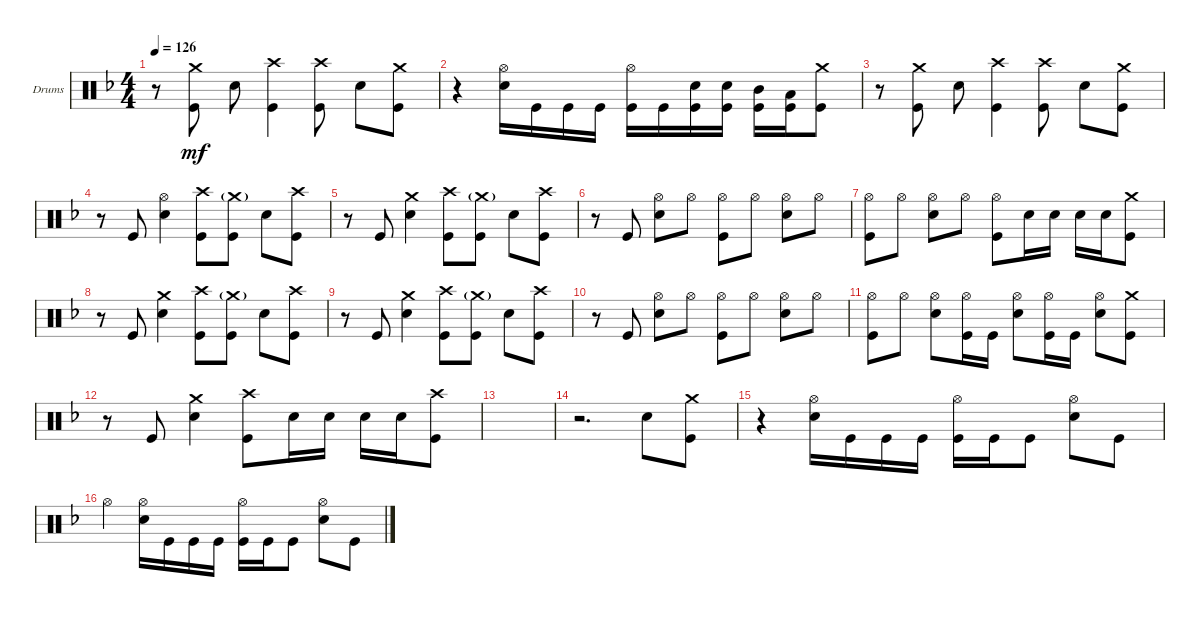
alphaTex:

\defaultSystemsLayout 4
\bracketExtendMode groupsimilarinstruments
\firstSystemTrackNameOrientation horizontal
\otherSystemsTrackNameOrientation horizontal
\track ("Drumkit" "Drums") {instrument percussion}
\staff {score}
\articulation defaults
\ts (4 4)
\tempo 126
\clef neutral
\ks f
r.8{dy mf} ("Crash medium (hit)" "Kick (hit)").8 "Snare (hit) 2".8 ("Kick (hit)" "Crash high (hit)").4 ("Kick (hit)" "Crash high (hit)").8 "Snare (hit) 2".8 ("Crash medium (hit)" "Kick (hit)").8 |
r.4 ("Hi-Hat (open)" "Snare (hit) 2").16 "Kick (hit)".16 "Kick (hit)".16 "Kick (hit)".16 ("Hi-Hat (open)" "Kick (hit)").16 "Kick (hit)".16 ("Kick (hit)" "Snare (hit) 2").16 ("Kick (hit)" "Snare (hit) 2").16 ("Kick (hit)" "Mid Tom (hit)").16 ("Kick (hit)" "Low Tom (hit)").16 ("Kick (hit)" "Crash medium (hit)").8 |
r.8 ("Crash medium (hit)" "Kick (hit)").8 "Snare (hit) 2".8 ("Kick (hit)" "Crash high (hit)").4 ("Kick (hit)" "Crash high (hit)").8 "Snare (hit) 2".8 ("Crash medium (hit)" "Kick (hit)").8 |
r.8 "Kick (hit)".8 ("Snare (hit) 2" "Hi-Hat (open)").4 ("Crash high (hit)" "Kick (hit)").8 ("Kick (hit)" "Crash medium (hit)"{g}).8 "Snare (hit) 2".8 ("Crash high (hit)" "Kick (hit)").8 |
r.8 "Kick (hit)".8 ("Crash medium (hit)" "Snare (hit) 2").4 ("Crash high (hit)" "Kick (hit)").8 ("Kick (hit)" "Crash medium (hit)"{g}).8 "Snare (hit) 2".8 ("Crash high (hit)" "Kick (hit)").8 |
r.8 "Kick (hit)".8 ("Snare (hit) 2" "Hi-Hat (open)").8 "Hi-Hat (open)".8 ("Hi-Hat (open)" "Kick (hit)").8 "Hi-Hat (open)".8 ("Snare (hit) 2" "Hi-Hat (open)").8 "Hi-Hat (open)".8 |
("Hi-Hat (open)" "Kick (hit)").8 "Hi-Hat (open)".8 ("Snare (hit) 2" "Hi-Hat (open)").8 "Hi-Hat (open)".8 ("Kick (hit)" "Hi-Hat (open)").8 "Snare (hit) 2".16 "Snare (hit) 2".16 "Snare (hit) 2".16 "Snare (hit) 2".16 ("Kick (hit)" "Crash medium (hit)").8 |
r.8 "Kick (hit)".8 ("Snare (hit) 2" "Crash medium (hit)").4 ("Crash high (hit)" "Kick (hit)").8 ("Kick (hit)" "Crash medium (hit)"{g}).8 "Snare (hit) 2".8 ("Crash high (hit)" "Kick (hit)").8 |
r.8 "Kick (hit)".8 ("Crash medium (hit)" "Snare (hit) 2").4 ("Crash high (hit)" "Kick (hit)").8 ("Kick (hit)" "Crash medium (hit)"{g}).8 "Snare (hit) 2".8 ("Crash high (hit)" "Kick (hit)").8 |
r.8 "Kick (hit)".8 ("Snare (hit) 2" "Hi-Hat (open)").8 "Hi-Hat (open)".8 ("Hi-Hat (open)" "Kick (hit)").8 "Hi-Hat (open)".8 ("Snare (hit) 2" "Hi-Hat (open)").8 "Hi-Hat (open)".8 |
("Hi-Hat (open)" "Kick (hit)").8 "Hi-Hat (open)".8 ("Snare (hit) 2" "Hi-Hat (open)").8 ("Kick (hit)" "Hi-Hat (open)").16 "Kick (hit)".16 ("Snare (hit) 2" "Hi-Hat (open)").8 ("Hi-Hat (open)" "Kick (hit)").16 "Kick (hit)".16 ("Snare (hit) 2" "Hi-Hat (open)").8 ("Kick (hit)" "Crash medium (hit)").8 |
r.8 "Kick (hit)".8 ("Crash medium (hit)" "Snare (hit) 2").4 ("Crash high (hit)" "Kick (hit)").8 "Snare (hit) 2".16 "Snare (hit) 2".16 "Snare (hit) 2".16 "Snare (hit) 2".16 ("Crash high (hit)" "Kick (hit)").8 |
|
r.2{d} "Snare (hit) 2".8 ("Kick (hit)" "Crash medium (hit)").8 |
r.4 ("Hi-Hat (open)" "Snare (hit) 2").16 "Kick (hit)".16 "Kick (hit)".16 "Kick (hit)".16 ("Hi-Hat (open)" "Kick (hit)").16 "Kick (hit)".16 "Kick (hit)".8 ("Hi-Hat (open)" "Snare (hit) 2").8 "Kick (hit)".8 |
"Hi-Hat (open)".4 ("Hi-Hat (open)" "Snare (hit) 2").16 "Kick (hit)".16 "Kick (hit)".16 "Kick (hit)".16 ("Hi-Hat (open)" "Kick (hit)").16 "Kick (hit)".16 "Kick (hit)".8 ("Hi-Hat (open)" "Snare (hit) 2").8 "Kick (hit)".8
